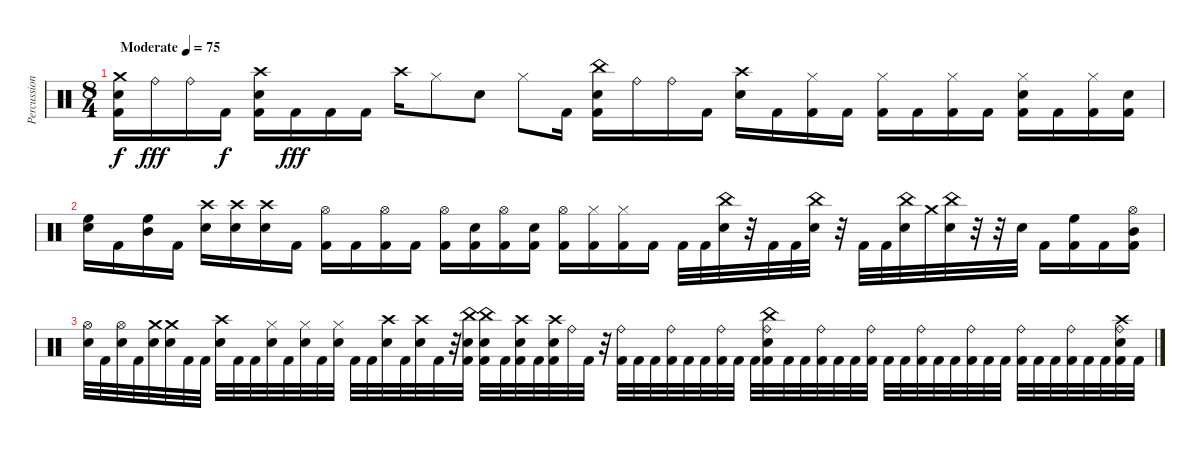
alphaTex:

\track ("Percussion" "Percussion") {instrument percussion}
\staff {score}
\articulation defaults
\ts (8 4)
\tempo (75 "Moderate")
\clef neutral
\ks c
("Kick (hit) 2" "Crash medium (hit)" "Electric Snare (hit)").16{dy f} "Ride (bell)".16{dy fff} "Ride (bell)".16 "Kick (hit) 2".16{dy f} ("Crash high (hit)" "Electric Snare (hit)" "Kick (hit) 2").16 "Kick (hit) 2".16{dy fff} "Kick (hit) 2".16 "Kick (hit) 2".16 "Crash high (hit)".16 "Hi-Hat (closed)".8 "Electric Snare (hit)".8 "Hi-Hat (closed)".8 "Kick (hit) 2".16 ("Electric Snare (hit)" "China (hit)" "Kick (hit) 2").16 "Ride (bell)".16 "Ride (bell)".16 "Kick (hit) 2".16 ("Crash high (hit)" "Electric Snare (hit)").16 "Kick (hit) 2".16 ("Hi-Hat (closed)" "Kick (hit) 2").16 "Kick (hit) 2".16 ("Hi-Hat (closed)" "Kick (hit) 2").16 "Kick (hit) 2".16 ("Hi-Hat (closed)" "Kick (hit) 2").16 "Kick (hit) 2".16 ("Electric Snare (hit)" "Hi-Hat (closed)" "Kick (hit) 2").16 "Kick (hit) 2".16 ("Hi-Hat (closed)" "Kick (hit) 2").16 ("Electric Snare (hit)" "Kick (hit) 2").16 |
("High Floor Tom (hit)" "Electric Snare (hit)").16 "Kick (hit) 2".16 ("Mid Tom (hit)" "High Floor Tom (hit)").16 "Kick (hit) 2".16 ("Crash high (hit)" "Electric Snare (hit)").16 ("Crash high (hit)" "Electric Snare (hit)").16 ("Crash high (hit)" "Electric Snare (hit)").16 "Kick (hit) 2".16 ("Hi-Hat (open)" "Kick (hit) 2").16 "Kick (hit) 2".16 ("Hi-Hat (open)" "Kick (hit) 2").16 "Kick (hit) 2".16 ("Hi-Hat (open)" "Kick (hit) 2").16 ("Electric Snare (hit)" "Kick (hit) 2").16 ("Hi-Hat (open)" "Kick (hit) 2").16 ("Electric Snare (hit)" "Kick (hit) 2").16 ("Hi-Hat (open)" "Kick (hit) 2").16 ("Hi-Hat (closed)" "Kick (hit) 2").16 ("Hi-Hat (closed)" "Kick (hit) 2").16 "Kick (hit) 2".16 "Kick (hit) 2".32 "Kick (hit) 2".32 ("China (hit)" "Electric Snare (hit)").32 r.32 "Kick (hit) 2".32 "Kick (hit) 2".32 ("China (hit)" "Electric Snare (hit)").32 r.32 "Kick (hit) 2".32 "Kick (hit) 2".32 ("China (hit)" "Electric Snare (hit)").32 "Crash medium (hit)".32 ("China (hit)" "Electric Snare (hit)").32 r.32 r.32 "Electric Snare (hit)".32 "Kick (hit) 2".16 ("High Floor Tom (hit)" "Kick (hit) 2").16 "Kick (hit) 2".16 ("Hi-Hat (open)" "Mid Tom (hit)" "Kick (hit) 2").16 |
("Hi-Hat (open)" "Electric Snare (hit)").32 "Kick (hit) 2".32 ("Hi-Hat (open)" "Electric Snare (hit)").32 "Kick (hit) 2".32 ("Crash medium (hit)" "Electric Snare (hit)").32 ("Crash medium (hit)" "Electric Snare (hit)").32 "Kick (hit) 2".32 "Kick (hit) 2".32 ("Crash high (hit)" "Electric Snare (hit)").32 "Kick (hit) 2".32 "Kick (hit) 2".32 ("Hi-Hat (closed)" "Electric Snare (hit)").32 "Kick (hit) 2".32 ("Hi-Hat (closed)" "Electric Snare (hit)").32 "Kick (hit) 2".32 ("Hi-Hat (closed)" "Electric Snare (hit)").32 "Kick (hit) 2".32 "Kick (hit) 2".32 ("Crash high (hit)" "Electric Snare (hit)").32 "Kick (hit) 2".32 ("Crash high (hit)" "Electric Snare (hit)").32 "Kick (hit) 2".32 r.32 ("China (hit)" "Electric Snare (hit)" "Kick (hit) 2").32 ("China (hit)" "Electric Snare (hit)" "Kick (hit) 2").32 "Kick (hit) 2".32 ("Crash high (hit)" "Electric Snare (hit)" "Kick (hit) 2").32 "Kick (hit) 2".32 ("Crash high (hit)" "Electric Snare (hit)" "Kick (hit) 2").32 "Ride (bell)".32 "Kick (hit) 2".32 r.32 ("Ride (bell)" "Kick (hit) 2").32 "Kick (hit) 2".32 "Kick (hit) 2".32 ("Ride (bell)" "Kick (hit) 2").32 "Kick (hit) 2".32 "Kick (hit) 2".32 ("Ride (bell)" "Kick (hit) 2").32 "Kick (hit) 2".32 "Kick (hit) 2".32 ("China (hit)" "Electric Snare (hit)" "Ride (bell)" "Kick (hit) 2").32 "Kick (hit) 2".32 "Kick (hit) 2".32 ("Ride (bell)" "Kick (hit) 2").32 "Kick (hit) 2".32 "Kick (hit) 2".32 ("Ride (bell)" "Kick (hit) 2").32 "Kick (hit) 2".32 "Kick (hit) 2".32 ("Ride (bell)" "Kick (hit) 2").32 "Kick (hit) 2".32 "Kick (hit) 2".32 ("Ride (bell)" "Kick (hit) 2").32 "Kick (hit) 2".32 "Kick (hit) 2".32 ("Ride (bell)" "Kick (hit) 2").32 "Kick (hit) 2".32 "Kick (hit) 2".32 ("Ride (bell)" "Kick (hit) 2").32 "Kick (hit) 2".32 "Kick (hit) 2".32 ("Crash high (hit)" "Electric Snare (hit)" "Ride (bell)" "Kick (hit) 2").32 "Kick (hit) 2".32
